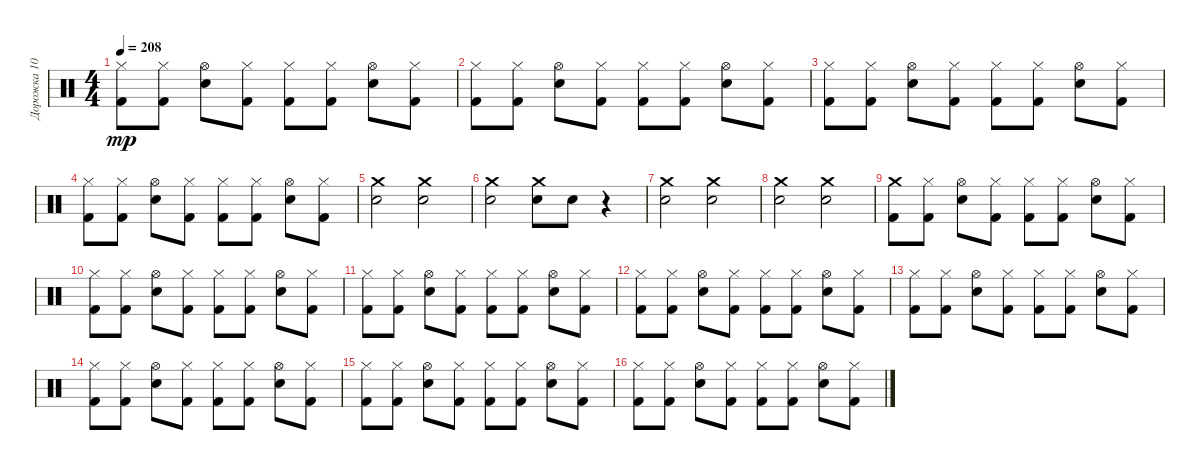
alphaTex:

\track ("Дорожка 10" "Дорожка 10") {instrument percussion}
\staff {score}
\articulation defaults
\ts (4 4)
\tempo 208
\clef neutral
\ks c
("Kick (hit) 2" "Hi-Hat (closed)").8{dy mp} ("Kick (hit) 2" "Hi-Hat (closed)").8 ("Snare (hit) 2" "Hi-Hat (open)").8 ("Kick (hit) 2" "Hi-Hat (closed)").8 ("Kick (hit) 2" "Hi-Hat (closed)").8 ("Kick (hit) 2" "Hi-Hat (closed)").8 ("Snare (hit) 2" "Hi-Hat (open)").8 ("Kick (hit) 2" "Hi-Hat (closed)").8 |
("Kick (hit) 2" "Hi-Hat (closed)").8 ("Kick (hit) 2" "Hi-Hat (closed)").8 ("Snare (hit) 2" "Hi-Hat (open)").8 ("Kick (hit) 2" "Hi-Hat (closed)").8 ("Kick (hit) 2" "Hi-Hat (closed)").8 ("Kick (hit) 2" "Hi-Hat (closed)").8 ("Snare (hit) 2" "Hi-Hat (open)").8 ("Kick (hit) 2" "Hi-Hat (closed)").8 |
("Kick (hit) 2" "Hi-Hat (closed)").8 ("Kick (hit) 2" "Hi-Hat (closed)").8 ("Snare (hit) 2" "Hi-Hat (open)").8 ("Kick (hit) 2" "Hi-Hat (closed)").8 ("Kick (hit) 2" "Hi-Hat (closed)").8 ("Kick (hit) 2" "Hi-Hat (closed)").8 ("Snare (hit) 2" "Hi-Hat (open)").8 ("Kick (hit) 2" "Hi-Hat (closed)").8 |
("Kick (hit) 2" "Hi-Hat (closed)").8 ("Kick (hit) 2" "Hi-Hat (closed)").8 ("Snare (hit) 2" "Hi-Hat (open)").8 ("Kick (hit) 2" "Hi-Hat (closed)").8 ("Kick (hit) 2" "Hi-Hat (closed)").8 ("Kick (hit) 2" "Hi-Hat (closed)").8 ("Snare (hit) 2" "Hi-Hat (open)").8 ("Kick (hit) 2" "Hi-Hat (closed)").8 |
("Snare (hit) 2" "Crash medium (hit)").2 ("Snare (hit) 2" "Crash medium (hit)").2 |
("Snare (hit) 2" "Crash medium (hit)").2 ("Snare (hit) 2" "Crash medium (hit)").8 "Snare (hit) 2".8 r.4 |
("Snare (hit) 2" "Crash medium (hit)").2 ("Snare (hit) 2" "Crash medium (hit)").2 |
("Snare (hit) 2" "Crash medium (hit)").2 ("Snare (hit) 2" "Crash medium (hit)").2 |
("Kick (hit) 2" "Crash medium (hit)").8 ("Kick (hit) 2" "Hi-Hat (closed)").8 ("Snare (hit) 2" "Hi-Hat (open)").8 ("Kick (hit) 2" "Hi-Hat (closed)").8 ("Kick (hit) 2" "Hi-Hat (closed)").8 ("Kick (hit) 2" "Hi-Hat (closed)").8 ("Snare (hit) 2" "Hi-Hat (open)").8 ("Kick (hit) 2" "Hi-Hat (closed)").8 |
("Kick (hit) 2" "Hi-Hat (closed)").8 ("Kick (hit) 2" "Hi-Hat (closed)").8 ("Snare (hit) 2" "Hi-Hat (open)").8 ("Kick (hit) 2" "Hi-Hat (closed)").8 ("Kick (hit) 2" "Hi-Hat (closed)").8 ("Kick (hit) 2" "Hi-Hat (closed)").8 ("Snare (hit) 2" "Hi-Hat (open)").8 ("Kick (hit) 2" "Hi-Hat (closed)").8 |
("Kick (hit) 2" "Hi-Hat (closed)").8 ("Kick (hit) 2" "Hi-Hat (closed)").8 ("Snare (hit) 2" "Hi-Hat (open)").8 ("Kick (hit) 2" "Hi-Hat (closed)").8 ("Kick (hit) 2" "Hi-Hat (closed)").8 ("Kick (hit) 2" "Hi-Hat (closed)").8 ("Snare (hit) 2" "Hi-Hat (open)").8 ("Kick (hit) 2" "Hi-Hat (closed)").8 |
("Kick (hit) 2" "Hi-Hat (closed)").8 ("Kick (hit) 2" "Hi-Hat (closed)").8 ("Snare (hit) 2" "Hi-Hat (open)").8 ("Kick (hit) 2" "Hi-Hat (closed)").8 ("Kick (hit) 2" "Hi-Hat (closed)").8 ("Kick (hit) 2" "Hi-Hat (closed)").8 ("Snare (hit) 2" "Hi-Hat (open)").8 ("Kick (hit) 2" "Hi-Hat (closed)").8 |
("Kick (hit) 2" "Hi-Hat (closed)").8 ("Kick (hit) 2" "Hi-Hat (closed)").8 ("Snare (hit) 2" "Hi-Hat (open)").8 ("Kick (hit) 2" "Hi-Hat (closed)").8 ("Kick (hit) 2" "Hi-Hat (closed)").8 ("Kick (hit) 2" "Hi-Hat (closed)").8 ("Snare (hit) 2" "Hi-Hat (open)").8 ("Kick (hit) 2" "Hi-Hat (closed)").8 |
("Kick (hit) 2" "Hi-Hat (closed)").8 ("Kick (hit) 2" "Hi-Hat (closed)").8 ("Snare (hit) 2" "Hi-Hat (open)").8 ("Kick (hit) 2" "Hi-Hat (closed)").8 ("Kick (hit) 2" "Hi-Hat (closed)").8 ("Kick (hit) 2" "Hi-Hat (closed)").8 ("Snare (hit) 2" "Hi-Hat (open)").8 ("Kick (hit) 2" "Hi-Hat (closed)").8 |
("Kick (hit) 2" "Hi-Hat (closed)").8 ("Kick (hit) 2" "Hi-Hat (closed)").8 ("Snare (hit) 2" "Hi-Hat (open)").8 ("Kick (hit) 2" "Hi-Hat (closed)").8 ("Kick (hit) 2" "Hi-Hat (closed)").8 ("Kick (hit) 2" "Hi-Hat (closed)").8 ("Snare (hit) 2" "Hi-Hat (open)").8 ("Kick (hit) 2" "Hi-Hat (closed)").8 |
("Kick (hit) 2" "Hi-Hat (closed)").8 ("Kick (hit) 2" "Hi-Hat (closed)").8 ("Snare (hit) 2" "Hi-Hat (open)").8 ("Kick (hit) 2" "Hi-Hat (closed)").8 ("Kick (hit) 2" "Hi-Hat (closed)").8 ("Kick (hit) 2" "Hi-Hat (closed)").8 ("Snare (hit) 2" "Hi-Hat (open)").8 ("Kick (hit) 2" "Hi-Hat (closed)").8
